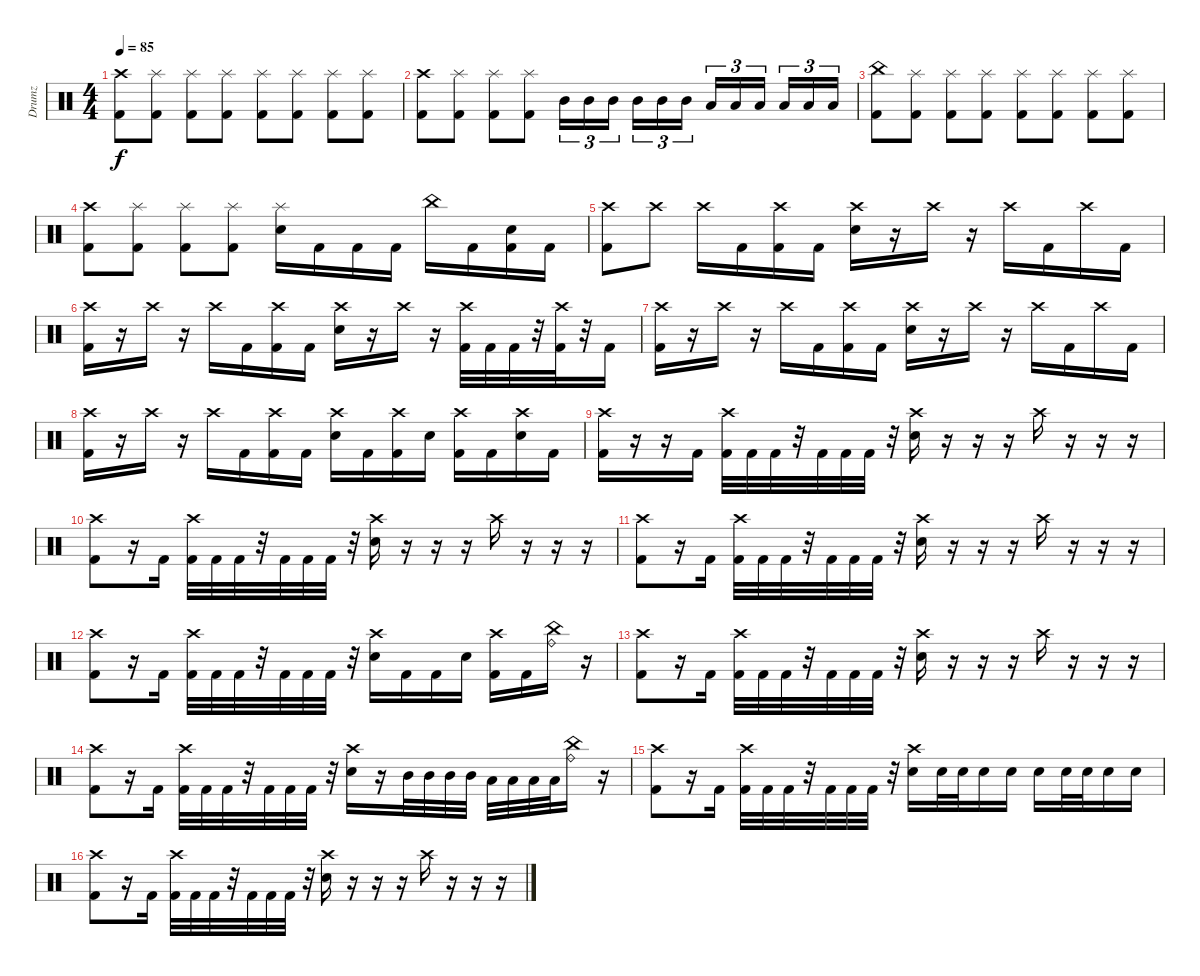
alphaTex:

\track ("Drumz" "Drumz") {instrument percussion}
\staff {score}
\articulation defaults
\ts (4 4)
\tempo 85
\clef neutral
\ks c
("Crash high (hit)" "Kick (hit) 2").8{dy f} ("Splash (hit)" "Kick (hit) 2").8 ("Splash (hit)" "Kick (hit) 2").8 ("Splash (hit)" "Kick (hit) 2").8 ("Splash (hit)" "Kick (hit) 2").8 ("Splash (hit)" "Kick (hit) 2").8 ("Splash (hit)" "Kick (hit) 2").8 ("Splash (hit)" "Kick (hit) 2").8 |
("Crash high (hit)" "Kick (hit) 2").8 ("Splash (hit)" "Kick (hit) 2").8 ("Splash (hit)" "Kick (hit) 2").8 ("Splash (hit)" "Kick (hit) 2").8 "Mid Tom (hit)".16{tu (3 2)} "Mid Tom (hit)".16{tu (3 2)} "Mid Tom (hit)".16{tu (3 2)} "Mid Tom (hit)".16{tu (3 2)} "Mid Tom (hit)".16{tu (3 2)} "Mid Tom (hit)".16{tu (3 2)} "Low Tom (hit)".16{tu (3 2)} "Low Tom (hit)".16{tu (3 2)} "Low Tom (hit)".16{tu (3 2)} "Low Tom (hit)".16{tu (3 2)} "Low Tom (hit)".16{tu (3 2)} "Low Tom (hit)".16{tu (3 2)} |
("China (hit)" "Kick (hit) 2").8 ("Splash (hit)" "Kick (hit) 2").8 ("Splash (hit)" "Kick (hit) 2").8 ("Splash (hit)" "Kick (hit) 2").8 ("Splash (hit)" "Kick (hit) 2").8 ("Splash (hit)" "Kick (hit) 2").8 ("Splash (hit)" "Kick (hit) 2").8 ("Splash (hit)" "Kick (hit) 2").8 |
("Crash high (hit)" "Kick (hit) 2").8 ("Splash (hit)" "Kick (hit) 2").8 ("Splash (hit)" "Kick (hit) 2").8 ("Splash (hit)" "Kick (hit) 2").8 ("Splash (hit)" "Snare (hit) 2").16 "Kick (hit) 2".16 "Kick (hit) 2".16 "Kick (hit) 2".16 "China (hit)".16 "Kick (hit) 2".16 ("Snare (hit) 2" "Kick (hit) 2").16 "Kick (hit) 2".16 |
("Crash high (hit)" "Kick (hit) 2").8 "Crash high (hit)".8 "Crash high (hit)".16 "Kick (hit) 2".16 ("Crash high (hit)" "Kick (hit) 2").16 "Kick (hit) 2".16 ("Crash high (hit)" "Snare (hit) 2").16 r.16 "Crash high (hit)".16 r.16 "Crash high (hit)".16 "Kick (hit) 2".16 "Crash high (hit)".16 "Kick (hit) 2".16 |
("Crash high (hit)" "Kick (hit) 2").16 r.16 "Crash high (hit)".16 r.16 "Crash high (hit)".16 "Kick (hit) 2".16 ("Crash high (hit)" "Kick (hit) 2").16 "Kick (hit) 2".16 ("Crash high (hit)" "Snare (hit) 2").16 r.16 "Crash high (hit)".16 r.16 ("Crash high (hit)" "Kick (hit) 2").32 "Kick (hit) 2".32 "Kick (hit) 2".32 r.32 ("Crash high (hit)" "Kick (hit) 2").32 r.32 "Kick (hit) 2".16 |
("Crash high (hit)" "Kick (hit) 2").16 r.16 "Crash high (hit)".16 r.16 "Crash high (hit)".16 "Kick (hit) 2".16 ("Crash high (hit)" "Kick (hit) 2").16 "Kick (hit) 2".16 ("Crash high (hit)" "Snare (hit) 2").16 r.16 "Crash high (hit)".16 r.16 "Crash high (hit)".16 "Kick (hit) 2".16 "Crash high (hit)".16 "Kick (hit) 2".16 |
("Crash high (hit)" "Kick (hit) 2").16 r.16 "Crash high (hit)".16 r.16 "Crash high (hit)".16 "Kick (hit) 2".16 ("Crash high (hit)" "Kick (hit) 2").16 "Kick (hit) 2".16 ("Crash high (hit)" "Snare (hit) 2").16 "Kick (hit) 2".16 ("Crash high (hit)" "Kick (hit) 2").16 "Snare (hit) 2".16 ("Crash high (hit)" "Kick (hit) 2").16 "Kick (hit) 2".16 ("Crash high (hit)" "Snare (hit) 2").16 "Kick (hit) 2".16 |
("Crash high (hit)" "Kick (hit) 2").16 r.16 r.16 "Kick (hit) 2".16 ("Crash high (hit)" "Kick (hit) 2").32 "Kick (hit) 2".32 "Kick (hit) 2".32 r.32 "Kick (hit) 2".32 "Kick (hit) 2".32 "Kick (hit) 2".32 r.32 ("Crash high (hit)" "Snare (hit) 2").16 r.16 r.16 r.16 "Crash high (hit)".16 r.16 r.16 r.16 |
("Crash high (hit)" "Kick (hit) 2").8 r.16 "Kick (hit) 2".16 ("Crash high (hit)" "Kick (hit) 2").32 "Kick (hit) 2".32 "Kick (hit) 2".32 r.32 "Kick (hit) 2".32 "Kick (hit) 2".32 "Kick (hit) 2".32 r.32 ("Crash high (hit)" "Snare (hit) 2").16 r.16 r.16 r.16 "Crash high (hit)".16 r.16 r.16 r.16 |
("Crash high (hit)" "Kick (hit) 2").8 r.16 "Kick (hit) 2".16 ("Crash high (hit)" "Kick (hit) 2").32 "Kick (hit) 2".32 "Kick (hit) 2".32 r.32 "Kick (hit) 2".32 "Kick (hit) 2".32 "Kick (hit) 2".32 r.32 ("Crash high (hit)" "Snare (hit) 2").16 r.16 r.16 r.16 "Crash high (hit)".16 r.16 r.16 r.16 |
("Crash high (hit)" "Kick (hit) 2").8 r.16 "Kick (hit) 2".16 ("Crash high (hit)" "Kick (hit) 2").32 "Kick (hit) 2".32 "Kick (hit) 2".32 r.32 "Kick (hit) 2".32 "Kick (hit) 2".32 "Kick (hit) 2".32 r.32 ("Crash high (hit)" "Snare (hit) 2").16 "Kick (hit) 2".16 "Kick (hit) 2".16 "Snare (hit) 2".16 ("Crash high (hit)" "Kick (hit) 2").16 "Kick (hit) 2".16 ("China (hit)" "Ride (bell)").16 r.16 |
("Crash high (hit)" "Kick (hit) 2").8 r.16 "Kick (hit) 2".16 ("Crash high (hit)" "Kick (hit) 2").32 "Kick (hit) 2".32 "Kick (hit) 2".32 r.32 "Kick (hit) 2".32 "Kick (hit) 2".32 "Kick (hit) 2".32 r.32 ("Crash high (hit)" "Snare (hit) 2").16 r.16 r.16 r.16 "Crash high (hit)".16 r.16 r.16 r.16 |
("Crash high (hit)" "Kick (hit) 2").8 r.16 "Kick (hit) 2".16 ("Crash high (hit)" "Kick (hit) 2").32 "Kick (hit) 2".32 "Kick (hit) 2".32 r.32 "Kick (hit) 2".32 "Kick (hit) 2".32 "Kick (hit) 2".32 r.32 ("Crash high (hit)" "Snare (hit) 2").16 r.16 "Mid Tom (hit)".32 "Mid Tom (hit)".32 "Mid Tom (hit)".32 "Mid Tom (hit)".32 "Low Tom (hit)".32 "Low Tom (hit)".32 "Low Tom (hit)".32 "Low Tom (hit)".32 ("China (hit)" "Ride (bell)").16 r.16 |
("Crash high (hit)" "Kick (hit) 2").8 r.16 "Kick (hit) 2".16 ("Crash high (hit)" "Kick (hit) 2").32 "Kick (hit) 2".32 "Kick (hit) 2".32 r.32 "Kick (hit) 2".32 "Kick (hit) 2".32 "Kick (hit) 2".32 r.32 ("Crash high (hit)" "Snare (hit) 2").16 "Snare (hit) 2".32 "Snare (hit) 2".32 "Snare (hit) 2".16 "Snare (hit) 2".16 "Snare (hit) 2".16 "Snare (hit) 2".32 "Snare (hit) 2".32 "Snare (hit) 2".16 "Snare (hit) 2".16 |
("Crash high (hit)" "Kick (hit) 2").8 r.16 "Kick (hit) 2".16 ("Crash high (hit)" "Kick (hit) 2").32 "Kick (hit) 2".32 "Kick (hit) 2".32 r.32 "Kick (hit) 2".32 "Kick (hit) 2".32 "Kick (hit) 2".32 r.32 ("Crash high (hit)" "Snare (hit) 2").16 r.16 r.16 r.16 "Crash high (hit)".16 r.16 r.16 r.16
